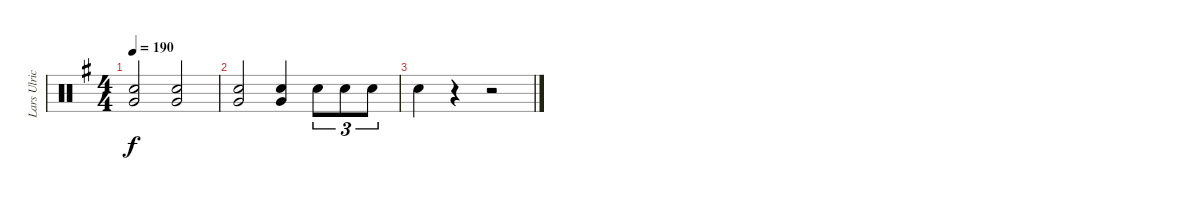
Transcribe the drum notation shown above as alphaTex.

\track ("Lars Ulrich - Drums" "Lars Ulric") {instrument percussion}
\staff {score}
\articulation defaults
\ts (4 4)
\tempo 190
\clef neutral
\ks eminor
("Very Low Tom (hit)" "Electric Snare (hit)").2{dy f} ("Very Low Tom (hit)" "Electric Snare (hit)").2 |
("Very Low Tom (hit)" "Electric Snare (hit)").2 ("Very Low Tom (hit)" "Electric Snare (hit)").4 "Electric Snare (hit)".8{tu (3 2)} "Electric Snare (hit)".8{tu (3 2)} "Electric Snare (hit)".8{tu (3 2)} |
"Electric Snare (hit)".4 r.4 r.2
